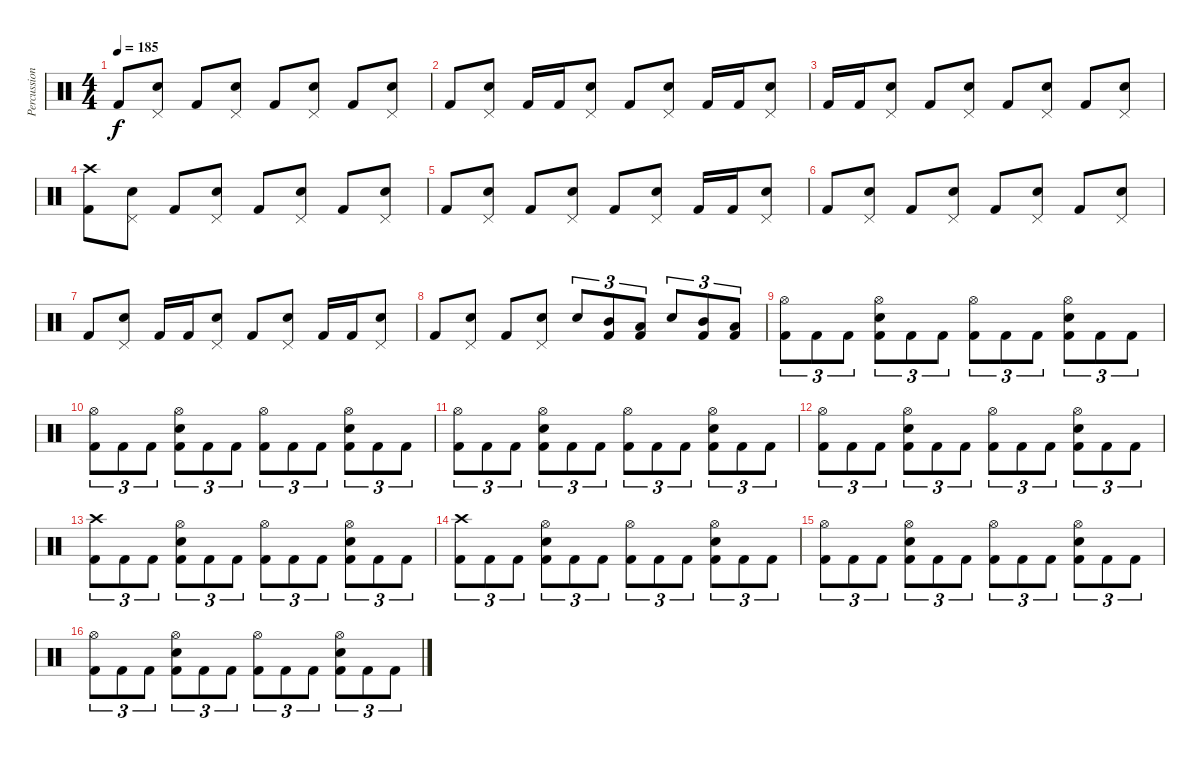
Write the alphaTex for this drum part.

\track ("Percussions" "Percussion") {instrument percussion}
\staff {score}
\articulation defaults
\ts (4 4)
\tempo 185
\clef neutral
\ks c "Kick (hit) 2".8{dy f}
("Pedal Hi-Hat (hit)" "Snare (hit) 2").8 "Kick (hit) 2".8 ("Pedal Hi-Hat (hit)" "Snare (hit) 2").8 "Kick (hit) 2".8 ("Pedal Hi-Hat (hit)" "Snare (hit) 2").8 "Kick (hit) 2".8 ("Pedal Hi-Hat (hit)" "Snare (hit) 2").8 |
"Kick (hit) 2".8 ("Pedal Hi-Hat (hit)" "Snare (hit) 2").8 "Kick (hit) 2".16 "Kick (hit) 2".16 ("Pedal Hi-Hat (hit)" "Snare (hit) 2").8 "Kick (hit) 2".8 ("Pedal Hi-Hat (hit)" "Snare (hit) 2").8 "Kick (hit) 2".16 "Kick (hit) 2".16 ("Pedal Hi-Hat (hit)" "Snare (hit) 2").8 |
"Kick (hit) 2".16 "Kick (hit) 2".16 ("Pedal Hi-Hat (hit)" "Snare (hit) 2").8 "Kick (hit) 2".8 ("Pedal Hi-Hat (hit)" "Snare (hit) 2").8 "Kick (hit) 2".8 ("Pedal Hi-Hat (hit)" "Snare (hit) 2").8 "Kick (hit) 2".8 ("Pedal Hi-Hat (hit)" "Snare (hit) 2").8 |
("Crash high (hit)" "Kick (hit) 2").8 ("Pedal Hi-Hat (hit)" "Snare (hit) 2").8 "Kick (hit) 2".8 ("Pedal Hi-Hat (hit)" "Snare (hit) 2").8 "Kick (hit) 2".8 ("Pedal Hi-Hat (hit)" "Snare (hit) 2").8 "Kick (hit) 2".8 ("Pedal Hi-Hat (hit)" "Snare (hit) 2").8 |
"Kick (hit) 2".8 ("Pedal Hi-Hat (hit)" "Snare (hit) 2").8 "Kick (hit) 2".8 ("Pedal Hi-Hat (hit)" "Snare (hit) 2").8 "Kick (hit) 2".8 ("Pedal Hi-Hat (hit)" "Snare (hit) 2").8 "Kick (hit) 2".16 "Kick (hit) 2".16 ("Pedal Hi-Hat (hit)" "Snare (hit) 2").8 |
"Kick (hit) 2".8 ("Pedal Hi-Hat (hit)" "Snare (hit) 2").8 "Kick (hit) 2".8 ("Pedal Hi-Hat (hit)" "Snare (hit) 2").8 "Kick (hit) 2".8 ("Pedal Hi-Hat (hit)" "Snare (hit) 2").8 "Kick (hit) 2".8 ("Pedal Hi-Hat (hit)" "Snare (hit) 2").8 |
"Kick (hit) 2".8 ("Pedal Hi-Hat (hit)" "Snare (hit) 2").8 "Kick (hit) 2".16 "Kick (hit) 2".16 ("Pedal Hi-Hat (hit)" "Snare (hit) 2").8 "Kick (hit) 2".8 ("Pedal Hi-Hat (hit)" "Snare (hit) 2").8 "Kick (hit) 2".16 "Kick (hit) 2".16 ("Pedal Hi-Hat (hit)" "Snare (hit) 2").8 |
"Kick (hit) 2".8 ("Pedal Hi-Hat (hit)" "Snare (hit) 2").8 "Kick (hit) 2".8 ("Pedal Hi-Hat (hit)" "Snare (hit) 2").8 "Snare (hit) 2".8{tu (3 2)} ("Mid Tom (hit)" "Kick (hit) 2").8{tu (3 2)} ("Low Tom (hit)" "Kick (hit) 2").8{tu (3 2)} "Snare (hit) 2".8{tu (3 2)} ("Mid Tom (hit)" "Kick (hit) 2").8{tu (3 2)} ("Low Tom (hit)" "Kick (hit) 2").8{tu (3 2)} |
("Hi-Hat (open)" "Kick (hit) 2").8{tu (3 2)} "Kick (hit) 2".8{tu (3 2)} "Kick (hit) 2".8{tu (3 2)} ("Hi-Hat (open)" "Snare (hit) 2" "Kick (hit) 2").8{tu (3 2)} "Kick (hit) 2".8{tu (3 2)} "Kick (hit) 2".8{tu (3 2)} ("Hi-Hat (open)" "Kick (hit) 2").8{tu (3 2)} "Kick (hit) 2".8{tu (3 2)} "Kick (hit) 2".8{tu (3 2)} ("Hi-Hat (open)" "Snare (hit) 2" "Kick (hit) 2").8{tu (3 2)} "Kick (hit) 2".8{tu (3 2)} "Kick (hit) 2".8{tu (3 2)} |
("Hi-Hat (open)" "Kick (hit) 2").8{tu (3 2)} "Kick (hit) 2".8{tu (3 2)} "Kick (hit) 2".8{tu (3 2)} ("Hi-Hat (open)" "Snare (hit) 2" "Kick (hit) 2").8{tu (3 2)} "Kick (hit) 2".8{tu (3 2)} "Kick (hit) 2".8{tu (3 2)} ("Hi-Hat (open)" "Kick (hit) 2").8{tu (3 2)} "Kick (hit) 2".8{tu (3 2)} "Kick (hit) 2".8{tu (3 2)} ("Hi-Hat (open)" "Snare (hit) 2" "Kick (hit) 2").8{tu (3 2)} "Kick (hit) 2".8{tu (3 2)} "Kick (hit) 2".8{tu (3 2)} |
("Hi-Hat (open)" "Kick (hit) 2").8{tu (3 2)} "Kick (hit) 2".8{tu (3 2)} "Kick (hit) 2".8{tu (3 2)} ("Hi-Hat (open)" "Snare (hit) 2" "Kick (hit) 2").8{tu (3 2)} "Kick (hit) 2".8{tu (3 2)} "Kick (hit) 2".8{tu (3 2)} ("Hi-Hat (open)" "Kick (hit) 2").8{tu (3 2)} "Kick (hit) 2".8{tu (3 2)} "Kick (hit) 2".8{tu (3 2)} ("Hi-Hat (open)" "Snare (hit) 2" "Kick (hit) 2").8{tu (3 2)} "Kick (hit) 2".8{tu (3 2)} "Kick (hit) 2".8{tu (3 2)} |
("Hi-Hat (open)" "Kick (hit) 2").8{tu (3 2)} "Kick (hit) 2".8{tu (3 2)} "Kick (hit) 2".8{tu (3 2)} ("Hi-Hat (open)" "Snare (hit) 2" "Kick (hit) 2").8{tu (3 2)} "Kick (hit) 2".8{tu (3 2)} "Kick (hit) 2".8{tu (3 2)} ("Hi-Hat (open)" "Kick (hit) 2").8{tu (3 2)} "Kick (hit) 2".8{tu (3 2)} "Kick (hit) 2".8{tu (3 2)} ("Hi-Hat (open)" "Snare (hit) 2" "Kick (hit) 2").8{tu (3 2)} "Kick (hit) 2".8{tu (3 2)} "Kick (hit) 2".8{tu (3 2)} |
("Crash high (hit)" "Kick (hit) 2").8{tu (3 2)} "Kick (hit) 2".8{tu (3 2)} "Kick (hit) 2".8{tu (3 2)} ("Hi-Hat (open)" "Snare (hit) 2" "Kick (hit) 2").8{tu (3 2)} "Kick (hit) 2".8{tu (3 2)} "Kick (hit) 2".8{tu (3 2)} ("Hi-Hat (open)" "Kick (hit) 2").8{tu (3 2)} "Kick (hit) 2".8{tu (3 2)} "Kick (hit) 2".8{tu (3 2)} ("Hi-Hat (open)" "Snare (hit) 2" "Kick (hit) 2").8{tu (3 2)} "Kick (hit) 2".8{tu (3 2)} "Kick (hit) 2".8{tu (3 2)} |
("Crash high (hit)" "Kick (hit) 2").8{tu (3 2)} "Kick (hit) 2".8{tu (3 2)} "Kick (hit) 2".8{tu (3 2)} ("Hi-Hat (open)" "Snare (hit) 2" "Kick (hit) 2").8{tu (3 2)} "Kick (hit) 2".8{tu (3 2)} "Kick (hit) 2".8{tu (3 2)} ("Hi-Hat (open)" "Kick (hit) 2").8{tu (3 2)} "Kick (hit) 2".8{tu (3 2)} "Kick (hit) 2".8{tu (3 2)} ("Hi-Hat (open)" "Snare (hit) 2" "Kick (hit) 2").8{tu (3 2)} "Kick (hit) 2".8{tu (3 2)} "Kick (hit) 2".8{tu (3 2)} |
("Hi-Hat (open)" "Kick (hit) 2").8{tu (3 2)} "Kick (hit) 2".8{tu (3 2)} "Kick (hit) 2".8{tu (3 2)} ("Hi-Hat (open)" "Snare (hit) 2" "Kick (hit) 2").8{tu (3 2)} "Kick (hit) 2".8{tu (3 2)} "Kick (hit) 2".8{tu (3 2)} ("Hi-Hat (open)" "Kick (hit) 2").8{tu (3 2)} "Kick (hit) 2".8{tu (3 2)} "Kick (hit) 2".8{tu (3 2)} ("Hi-Hat (open)" "Snare (hit) 2" "Kick (hit) 2").8{tu (3 2)} "Kick (hit) 2".8{tu (3 2)} "Kick (hit) 2".8{tu (3 2)} |
("Hi-Hat (open)" "Kick (hit) 2").8{tu (3 2)} "Kick (hit) 2".8{tu (3 2)} "Kick (hit) 2".8{tu (3 2)} ("Hi-Hat (open)" "Snare (hit) 2" "Kick (hit) 2").8{tu (3 2)} "Kick (hit) 2".8{tu (3 2)} "Kick (hit) 2".8{tu (3 2)} ("Hi-Hat (open)" "Kick (hit) 2").8{tu (3 2)} "Kick (hit) 2".8{tu (3 2)} "Kick (hit) 2".8{tu (3 2)} ("Hi-Hat (open)" "Snare (hit) 2" "Kick (hit) 2").8{tu (3 2)} "Kick (hit) 2".8{tu (3 2)} "Kick (hit) 2".8{tu (3 2)}
